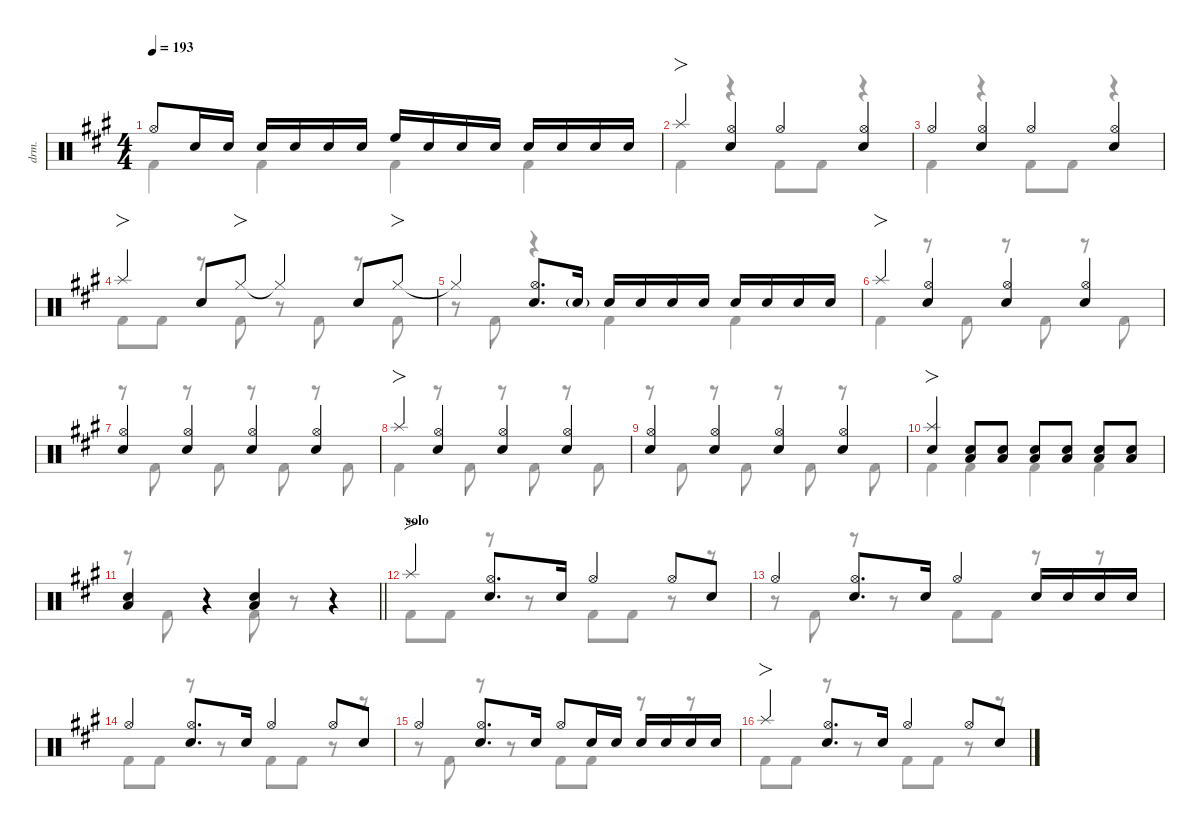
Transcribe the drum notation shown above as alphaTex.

\defaultSystemsLayout 4
\hideDynamics
\bracketExtendMode nobrackets
\track ("伊地知虹夏" "drm.") {instrument percussion}
\staff {score}
\articulation defaults
\voice
\ts (4 4)
\tempo 193
\clef neutral
\ks a "Hi-Hat (open)"{acc forcenatural}.8{dy mf beam Up} "Snare (hit) 2"{acc forcenatural}.16{beam Up} "Snare (hit) 2"{acc forcenatural}.16{beam Up} "Snare (hit) 2"{acc forcenatural}.16{beam Up} "Snare (hit) 2"{acc forcenatural}.16{beam Up} "Snare (hit) 2"{acc forcenatural}.16{beam Up} "Snare (hit) 2"{acc forcenatural}.16{beam Up} "High Floor Tom (hit)"{acc forcenatural}.16{beam Up} "Snare (hit) 2"{acc forcenatural}.16{beam Up} "Snare (hit) 2"{acc forcenatural}.16{beam Up} "Snare (hit) 2"{acc forcenatural}.16{beam Up} "Snare (hit) 2"{acc forcenatural}.16{beam Up} "Snare (hit) 2"{acc forcenatural}.16{beam Up} "Snare (hit) 2"{acc forcenatural}.16{beam Up} "Snare (hit) 2"{acc forcenatural}.16{beam Up}
|
"Splash (hit)"{acc forcenatural}.4{fo beam Up} ("Hi-Hat (open)"{acc forcenatural} "Snare (hit) 2"{acc forcenatural}).4{beam Up} "Hi-Hat (open)"{acc forcenatural}.4{beam Up} ("Hi-Hat (open)"{acc forcenatural} "Snare (hit) 2"{acc forcenatural}).4{beam Up} |
"Hi-Hat (open)"{acc forcenatural}.4{beam Up} ("Hi-Hat (open)"{acc forcenatural} "Snare (hit) 2"{acc forcenatural}).4{beam Up} "Hi-Hat (open)"{acc forcenatural}.4{beam Up} ("Hi-Hat (open)"{acc forcenatural} "Snare (hit) 2"{acc forcenatural}).4{beam Up} |
"Splash (hit)"{acc forcenatural}.4{fo beam Up} "Snare (hit) 2"{acc forcenatural}.8{beam Up} "Hi-Hat (closed)"{acc forcenatural}.8{fo beam Up} "Hi-Hat (closed)"{t acc forcenatural}.4{beam Up} "Snare (hit) 2"{acc forcenatural}.8{beam Up} "Hi-Hat (closed)"{acc forcenatural}.8{fo beam Up} |
"Hi-Hat (closed)"{t acc forcenatural}.4{beam Up} ("Hi-Hat (open)"{acc forcenatural} "Snare (hit) 2"{acc forcenatural}).8{d beam Up} "Snare (hit) 2"{g acc forcenatural}.16{beam Up} "Snare (hit) 2"{acc forcenatural}.16{beam Up} "Snare (hit) 2"{acc forcenatural}.16{beam Up} "Snare (hit) 2"{acc forcenatural}.16{beam Up} "Snare (hit) 2"{acc forcenatural}.16{beam Up} "Snare (hit) 2"{acc forcenatural}.16{beam Up} "Snare (hit) 2"{acc forcenatural}.16{beam Up} "Snare (hit) 2"{acc forcenatural}.16{beam Up} "Snare (hit) 2"{acc forcenatural}.16{beam Up} |
"Splash (hit)"{acc forcenatural}.4{fo beam Up} ("Hi-Hat (open)"{acc forcenatural} "Snare (hit) 2"{acc forcenatural}).4{beam Up} ("Hi-Hat (open)"{acc forcenatural} "Snare (hit) 2"{acc forcenatural}).4{beam Up} ("Hi-Hat (open)"{acc forcenatural} "Snare (hit) 2"{acc forcenatural}).4{beam Up} |
("Hi-Hat (open)"{acc forcenatural} "Snare (hit) 2"{acc forcenatural}).4{beam Up} ("Hi-Hat (open)"{acc forcenatural} "Snare (hit) 2"{acc forcenatural}).4{beam Up} ("Hi-Hat (open)"{acc forcenatural} "Snare (hit) 2"{acc forcenatural}).4{beam Up} ("Hi-Hat (open)"{acc forcenatural} "Snare (hit) 2"{acc forcenatural}).4{beam Up} |
"Splash (hit)"{acc forcenatural}.4{fo beam Up} ("Hi-Hat (open)"{acc forcenatural} "Snare (hit) 2"{acc forcenatural}).4{beam Up} ("Hi-Hat (open)"{acc forcenatural} "Snare (hit) 2"{acc forcenatural}).4{beam Up} ("Hi-Hat (open)"{acc forcenatural} "Snare (hit) 2"{acc forcenatural}).4{beam Up} |
("Hi-Hat (open)"{acc forcenatural} "Snare (hit) 2"{acc forcenatural}).4{beam Up} ("Hi-Hat (open)"{acc forcenatural} "Snare (hit) 2"{acc forcenatural}).4{beam Up} ("Hi-Hat (open)"{acc forcenatural} "Snare (hit) 2"{acc forcenatural}).4{beam Up} ("Hi-Hat (open)"{acc forcenatural} "Snare (hit) 2"{acc forcenatural}).4{beam Up} |
("Splash (hit)"{acc forcenatural} "Snare (hit) 2"{acc forcenatural}).4{fo beam Up} ("Snare (hit) 2"{acc forcenatural} "Low Tom (hit)"{acc forcenatural}).8{beam Up} ("Snare (hit) 2"{acc forcenatural} "Low Tom (hit)"{acc forcenatural}).8{beam Up} ("Low Tom (hit)"{acc forcenatural} "Snare (hit) 2"{acc forcenatural}).8{beam Up} ("Low Tom (hit)"{acc forcenatural} "Snare (hit) 2"{acc forcenatural}).8{beam Up} ("Low Tom (hit)"{acc forcenatural} "Snare (hit) 2"{acc forcenatural}).8{beam Up} ("Low Tom (hit)"{acc forcenatural} "Snare (hit) 2"{acc forcenatural}).8{beam Up} |
\barLineRight lightlight
("Snare (hit) 2"{acc forcenatural} "Low Tom (hit)"{acc forcenatural}).4{beam Up} r.4{beam Up} ("Low Tom (hit)"{acc forcenatural} "Snare (hit) 2"{acc forcenatural}).4{beam Up} r.4{beam Up} |
\section ("" "solo")
"Splash (hit)"{acc forcenatural}.4{fo beam Up} ("Snare (hit) 2"{acc forcenatural} "Hi-Hat (open)"{acc forcenatural}).8{d beam Up} "Snare (hit) 2"{acc forcenatural}.16{beam Up} "Hi-Hat (open)"{acc forcenatural}.4{beam Up} "Hi-Hat (open)"{acc forcenatural}.8{beam Up} "Snare (hit) 2"{acc forcenatural}.8{beam Up} |
"Hi-Hat (open)"{acc forcenatural}.4{beam Up} ("Hi-Hat (open)"{acc forcenatural} "Snare (hit) 2"{acc forcenatural}).8{d beam Up} "Snare (hit) 2"{acc forcenatural}.16{beam Up} "Hi-Hat (open)"{acc forcenatural}.4{beam Up} "Snare (hit) 2"{acc forcenatural}.16{beam Up} "Snare (hit) 2"{acc forcenatural}.16{beam Up} "Snare (hit) 2"{acc forcenatural}.16{beam Up} "Snare (hit) 2"{acc forcenatural}.16{beam Up} |
"Hi-Hat (open)"{acc forcenatural}.4{beam Up} ("Snare (hit) 2"{acc forcenatural} "Hi-Hat (open)"{acc forcenatural}).8{d beam Up} "Snare (hit) 2"{acc forcenatural}.16{beam Up} "Hi-Hat (open)"{acc forcenatural}.4{beam Up} "Hi-Hat (open)"{acc forcenatural}.8{beam Up} "Snare (hit) 2"{acc forcenatural}.8{beam Up} |
"Hi-Hat (open)"{acc forcenatural}.4{beam Up} ("Hi-Hat (open)"{acc forcenatural} "Snare (hit) 2"{acc forcenatural}).8{d beam Up} "Snare (hit) 2"{acc forcenatural}.16{beam Up} "Hi-Hat (open)"{acc forcenatural}.8{beam Up} "Snare (hit) 2"{acc forcenatural}.16{beam Up} "Snare (hit) 2"{acc forcenatural}.16{beam Up} "Snare (hit) 2"{acc forcenatural}.16{beam Up} "Snare (hit) 2"{acc forcenatural}.16{beam Up} "Snare (hit) 2"{acc forcenatural}.16{beam Up} "Snare (hit) 2"{acc forcenatural}.16{beam Up} |
"Splash (hit)"{acc forcenatural}.4{fo beam Up} ("Snare (hit) 2"{acc forcenatural} "Hi-Hat (open)"{acc forcenatural}).8{d beam Up} "Snare (hit) 2"{acc forcenatural}.16{beam Up} "Hi-Hat (open)"{acc forcenatural}.4{beam Up} "Hi-Hat (open)"{acc forcenatural}.8{beam Up} "Snare (hit) 2"{acc forcenatural}.8{beam Up}
\voice
\clef neutral
\ottava regular
\simile none
\ks a "Kick (hit) 2"{acc forcenatural}.4{dy mf beam Down} "Kick (hit) 2"{acc forcenatural}.4{beam Down} "Kick (hit) 2"{acc forcenatural}.4{beam Down} "Kick (hit) 2"{acc forcenatural}.4{beam Down}
|
"Kick (hit) 2"{acc forcenatural}.4{beam Down} r.4{beam Down} "Kick (hit) 2"{acc forcenatural}.8{beam Down} "Kick (hit) 2"{acc forcenatural}.8{beam Down} r.4{beam Down} |
"Kick (hit) 2"{acc forcenatural}.4{beam Down} r.4{beam Down} "Kick (hit) 2"{acc forcenatural}.8{beam Down} "Kick (hit) 2"{acc forcenatural}.8{beam Down} r.4{beam Down} |
"Kick (hit) 2"{acc forcenatural}.8{beam Down} "Kick (hit) 2"{acc forcenatural}.8{beam Down} r.8{beam Down} "Kick (hit) 2"{acc forcenatural}.8{beam Down} r.8{beam Down} "Kick (hit) 2"{acc forcenatural}.8{beam Down} r.8{beam Down} "Kick (hit) 2"{acc forcenatural}.8{beam Down} |
r.8{beam Down} "Kick (hit) 2"{acc forcenatural}.8{beam Down} r.4{beam Down} "Kick (hit) 2"{acc forcenatural}.4{beam Down} "Kick (hit) 2"{acc forcenatural}.4{beam Down} |
"Kick (hit) 2"{acc forcenatural}.4{beam Down} r.8{beam Down} "Kick (hit) 2"{acc forcenatural}.8{beam Down} r.8{beam Down} "Kick (hit) 2"{acc forcenatural}.8{beam Down} r.8{beam Down} "Kick (hit) 2"{acc forcenatural}.8{beam Down} |
r.8{beam Down} "Kick (hit) 2"{acc forcenatural}.8{beam Down} r.8{beam Down} "Kick (hit) 2"{acc forcenatural}.8{beam Down} r.8{beam Down} "Kick (hit) 2"{acc forcenatural}.8{beam Down} r.8{beam Down} "Kick (hit) 2"{acc forcenatural}.8{beam Down} |
"Kick (hit) 2"{acc forcenatural}.4{beam Down} r.8{beam Down} "Kick (hit) 2"{acc forcenatural}.8{beam Down} r.8{beam Down} "Kick (hit) 2"{acc forcenatural}.8{beam Down} r.8{beam Down} "Kick (hit) 2"{acc forcenatural}.8{beam Down} |
r.8{beam Down} "Kick (hit) 2"{acc forcenatural}.8{beam Down} r.8{beam Down} "Kick (hit) 2"{acc forcenatural}.8{beam Down} r.8{beam Down} "Kick (hit) 2"{acc forcenatural}.8{beam Down} r.8{beam Down} "Kick (hit) 2"{acc forcenatural}.8{beam Down} |
"Kick (hit) 2"{acc forcenatural}.4{beam Down} "Kick (hit) 2"{acc forcenatural}.4{beam Down} "Kick (hit) 2"{acc forcenatural}.4{beam Down} "Kick (hit) 2"{acc forcenatural}.4{beam Down} |
\barLineRight lightlight
r.8{beam Down} "Kick (hit) 2"{acc forcenatural}.8{beam Down} r.4{beam Down} "Kick (hit) 2"{acc forcenatural}.8{beam Down} r.8{beam Down} r.4{beam Down} |
"Kick (hit) 2"{acc forcenatural}.8{beam Down} "Kick (hit) 2"{acc forcenatural}.8{beam Down} r.8{beam Down} r.8{beam Down} "Kick (hit) 2"{acc forcenatural}.8{beam Down} "Kick (hit) 2"{acc forcenatural}.8{beam Down} r.8{beam Down} r.8{beam Down} |
r.8{beam Down} "Kick (hit) 2"{acc forcenatural}.8{beam Down} r.8{beam Down} r.8{beam Down} "Kick (hit) 2"{acc forcenatural}.8{beam Down} "Kick (hit) 2"{acc forcenatural}.8{beam Down} r.8{beam Down} r.8{beam Down} |
"Kick (hit) 2"{acc forcenatural}.8{beam Down} "Kick (hit) 2"{acc forcenatural}.8{beam Down} r.8{beam Down} r.8{beam Down} "Kick (hit) 2"{acc forcenatural}.8{beam Down} "Kick (hit) 2"{acc forcenatural}.8{beam Down} r.8{beam Down} r.8{beam Down} |
r.8{beam Down} "Kick (hit) 2"{acc forcenatural}.8{beam Down} r.8{beam Down} r.8{beam Down} "Kick (hit) 2"{acc forcenatural}.8{beam Down} "Kick (hit) 2"{acc forcenatural}.8{beam Down} r.8{beam Down} r.8{beam Down} |
"Kick (hit) 2"{acc forcenatural}.8{beam Down} "Kick (hit) 2"{acc forcenatural}.8{beam Down} r.8{beam Down} r.8{beam Down} "Kick (hit) 2"{acc forcenatural}.8{beam Down} "Kick (hit) 2"{acc forcenatural}.8{beam Down} r.8{beam Down} r.8{beam Down}
